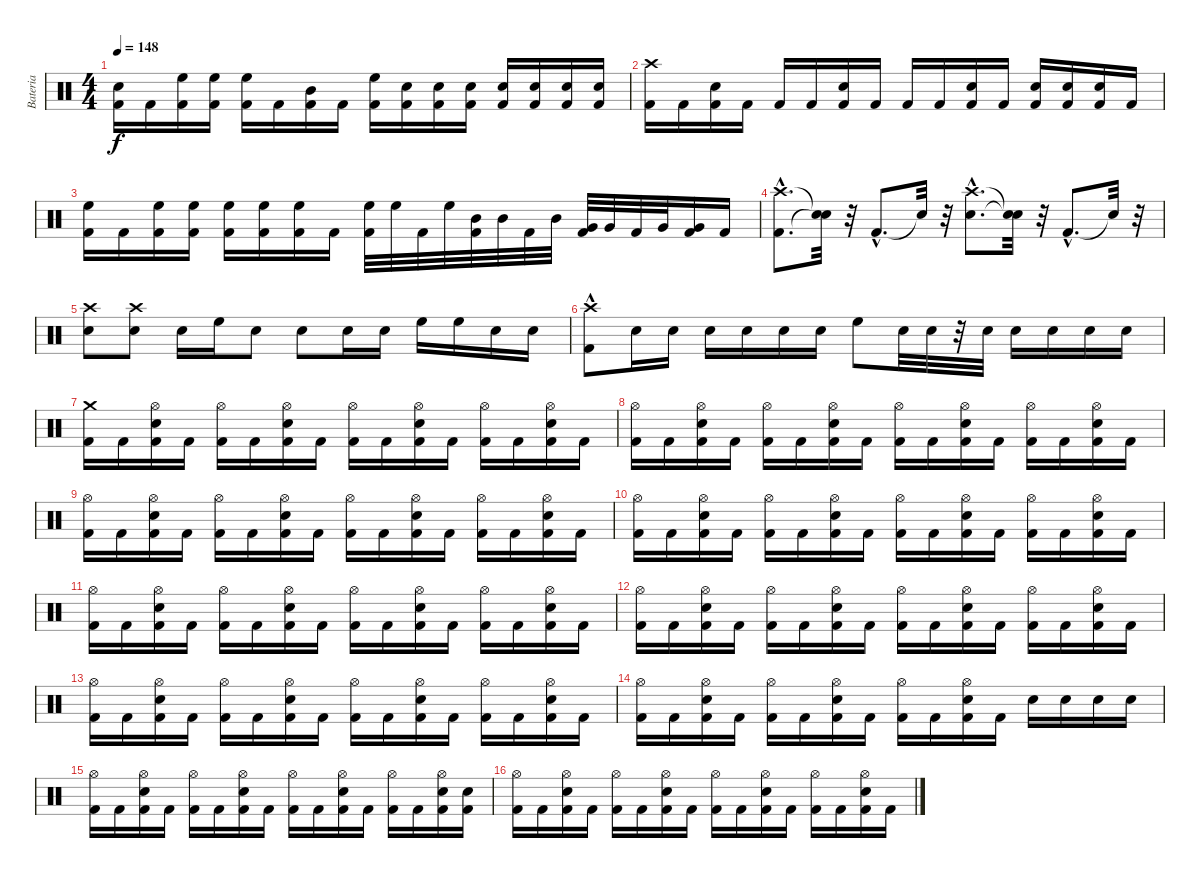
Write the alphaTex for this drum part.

\track ("Bateria" "Bateria") {instrument percussion}
\staff {score}
\articulation defaults
\ts (4 4)
\tempo 148
\clef neutral
\ks c
("Kick (hit) 2" "Snare (hit) 2").16{dy f} "Kick (hit) 2".16 ("Kick (hit) 2" "High Floor Tom (hit)").16 ("Kick (hit) 2" "High Floor Tom (hit)").16 ("Kick (hit) 2" "High Floor Tom (hit)").16 "Kick (hit) 2".16 ("Kick (hit) 2" "Mid Tom (hit)").16 "Kick (hit) 2".16 ("Kick (hit) 2" "High Floor Tom (hit)").16 ("Kick (hit) 2" "Snare (hit) 2").16 ("Kick (hit) 2" "Snare (hit) 2").16 ("Kick (hit) 2" "Snare (hit) 2").16 ("Kick (hit) 2" "Snare (hit) 2").16 ("Kick (hit) 2" "Snare (hit) 2").16 ("Kick (hit) 2" "Snare (hit) 2").16 ("Kick (hit) 2" "Snare (hit) 2").16 |
("Kick (hit) 2" "Crash high (hit)").16 "Kick (hit) 2".16 ("Kick (hit) 2" "Snare (hit) 2").16 "Kick (hit) 2".16 "Kick (hit) 2".16 "Kick (hit) 2".16 ("Kick (hit) 2" "Snare (hit) 2").16 "Kick (hit) 2".16 "Kick (hit) 2".16 "Kick (hit) 2".16 ("Kick (hit) 2" "Snare (hit) 2").16 "Kick (hit) 2".16 ("Kick (hit) 2" "Snare (hit) 2").16 ("Kick (hit) 2" "Snare (hit) 2").16 ("Kick (hit) 2" "Snare (hit) 2").16 "Kick (hit) 2".16 |
("Kick (hit) 2" "High Floor Tom (hit)").16 "Kick (hit) 2".16 ("Kick (hit) 2" "High Floor Tom (hit)").16 ("Kick (hit) 2" "High Floor Tom (hit)").16 ("Kick (hit) 2" "High Floor Tom (hit)").16 ("Kick (hit) 2" "High Floor Tom (hit)").16 ("Kick (hit) 2" "High Floor Tom (hit)").16 "Kick (hit) 2".16 ("Kick (hit) 2" "High Floor Tom (hit)").32 "High Floor Tom (hit)".32 "Kick (hit) 2".32 "High Floor Tom (hit)".32 ("Kick (hit) 2" "Mid Tom (hit)").32 "Mid Tom (hit)".32 "Kick (hit) 2".32 "Mid Tom (hit)".32 ("Kick (hit) 2" "Very Low Tom (hit)").32 "Very Low Tom (hit)".32 "Kick (hit) 2".32 "Very Low Tom (hit)".32 ("Kick (hit) 2" "Very Low Tom (hit)").16 "Kick (hit) 2".16 |
("Kick (hit) 2"{hac} "Crash high (hit)"{hac}).8{d} ("Snare (hit)"{t} "Snare (hit)"{t}).32 r.32 "Kick (hit) 2"{hac}.8{d} "Snare (hit)"{t}.32 r.32 ("Snare (hit) 2"{hac} "Crash high (hit)"{hac}).8{d} ("Snare (hit)"{t} "Snare (hit)"{t}).32 r.32 "Kick (hit) 2"{hac}.8{d} "Snare (hit)"{t}.32 r.32 |
("Snare (hit) 2" "Crash high (hit)").8 ("Snare (hit) 2" "Crash high (hit)").8 "Snare (hit) 2".16 "High Floor Tom (hit)".16 "Snare (hit) 2".8 "Snare (hit) 2".8 "Snare (hit) 2".16 "Snare (hit) 2".16 "High Floor Tom (hit)".16 "High Floor Tom (hit)".16 "Snare (hit) 2".16 "Snare (hit) 2".16 |
("Kick (hit) 2"{hac} "Crash high (hit)").8 "Snare (hit) 2".16 "Snare (hit) 2".16 "Snare (hit) 2".16 "Snare (hit) 2".16 "Snare (hit) 2".16 "Snare (hit) 2".16 "High Floor Tom (hit)".8 "Snare (hit) 2".32 "Snare (hit) 2".32 r.32 "Snare (hit) 2".32 "Snare (hit) 2".16 "Snare (hit) 2".16 "Snare (hit) 2".16 "Snare (hit) 2".16 |
("Kick (hit) 2" "Crash medium (hit)").16 "Kick (hit) 2".16 ("Kick (hit) 2" "Snare (hit) 2" "Hi-Hat (open)").16 "Kick (hit) 2".16 ("Kick (hit) 2" "Hi-Hat (open)").16 "Kick (hit) 2".16 ("Kick (hit) 2" "Snare (hit) 2" "Hi-Hat (open)").16 "Kick (hit) 2".16 ("Kick (hit) 2" "Hi-Hat (open)").16 "Kick (hit) 2".16 ("Kick (hit) 2" "Snare (hit) 2" "Hi-Hat (open)").16 "Kick (hit) 2".16 ("Kick (hit) 2" "Hi-Hat (open)").16 "Kick (hit) 2".16 ("Kick (hit) 2" "Snare (hit) 2" "Hi-Hat (open)").16 "Kick (hit) 2".16 |
("Kick (hit) 2" "Hi-Hat (open)").16 "Kick (hit) 2".16 ("Kick (hit) 2" "Snare (hit) 2" "Hi-Hat (open)").16 "Kick (hit) 2".16 ("Kick (hit) 2" "Hi-Hat (open)").16 "Kick (hit) 2".16 ("Kick (hit) 2" "Snare (hit) 2" "Hi-Hat (open)").16 "Kick (hit) 2".16 ("Kick (hit) 2" "Hi-Hat (open)").16 "Kick (hit) 2".16 ("Kick (hit) 2" "Snare (hit) 2" "Hi-Hat (open)").16 "Kick (hit) 2".16 ("Kick (hit) 2" "Hi-Hat (open)").16 "Kick (hit) 2".16 ("Kick (hit) 2" "Snare (hit) 2" "Hi-Hat (open)").16 "Kick (hit) 2".16 |
("Kick (hit) 2" "Hi-Hat (open)").16 "Kick (hit) 2".16 ("Kick (hit) 2" "Snare (hit) 2" "Hi-Hat (open)").16 "Kick (hit) 2".16 ("Kick (hit) 2" "Hi-Hat (open)").16 "Kick (hit) 2".16 ("Kick (hit) 2" "Snare (hit) 2" "Hi-Hat (open)").16 "Kick (hit) 2".16 ("Kick (hit) 2" "Hi-Hat (open)").16 "Kick (hit) 2".16 ("Kick (hit) 2" "Snare (hit) 2" "Hi-Hat (open)").16 "Kick (hit) 2".16 ("Kick (hit) 2" "Hi-Hat (open)").16 "Kick (hit) 2".16 ("Kick (hit) 2" "Snare (hit) 2" "Hi-Hat (open)").16 "Kick (hit) 2".16 |
("Kick (hit) 2" "Hi-Hat (open)").16 "Kick (hit) 2".16 ("Kick (hit) 2" "Snare (hit) 2" "Hi-Hat (open)").16 "Kick (hit) 2".16 ("Kick (hit) 2" "Hi-Hat (open)").16 "Kick (hit) 2".16 ("Kick (hit) 2" "Snare (hit) 2" "Hi-Hat (open)").16 "Kick (hit) 2".16 ("Kick (hit) 2" "Hi-Hat (open)").16 "Kick (hit) 2".16 ("Kick (hit) 2" "Snare (hit) 2" "Hi-Hat (open)").16 "Kick (hit) 2".16 ("Kick (hit) 2" "Hi-Hat (open)").16 "Kick (hit) 2".16 ("Kick (hit) 2" "Snare (hit) 2" "Hi-Hat (open)").16 "Kick (hit) 2".16 |
("Kick (hit) 2" "Hi-Hat (open)").16 "Kick (hit) 2".16 ("Kick (hit) 2" "Snare (hit) 2" "Hi-Hat (open)").16 "Kick (hit) 2".16 ("Kick (hit) 2" "Hi-Hat (open)").16 "Kick (hit) 2".16 ("Kick (hit) 2" "Snare (hit) 2" "Hi-Hat (open)").16 "Kick (hit) 2".16 ("Kick (hit) 2" "Hi-Hat (open)").16 "Kick (hit) 2".16 ("Kick (hit) 2" "Snare (hit) 2" "Hi-Hat (open)").16 "Kick (hit) 2".16 ("Kick (hit) 2" "Hi-Hat (open)").16 "Kick (hit) 2".16 ("Kick (hit) 2" "Snare (hit) 2" "Hi-Hat (open)").16 "Kick (hit) 2".16 |
("Kick (hit) 2" "Hi-Hat (open)").16 "Kick (hit) 2".16 ("Kick (hit) 2" "Snare (hit) 2" "Hi-Hat (open)").16 "Kick (hit) 2".16 ("Kick (hit) 2" "Hi-Hat (open)").16 "Kick (hit) 2".16 ("Kick (hit) 2" "Snare (hit) 2" "Hi-Hat (open)").16 "Kick (hit) 2".16 ("Kick (hit) 2" "Hi-Hat (open)").16 "Kick (hit) 2".16 ("Kick (hit) 2" "Snare (hit) 2" "Hi-Hat (open)").16 "Kick (hit) 2".16 ("Kick (hit) 2" "Hi-Hat (open)").16 "Kick (hit) 2".16 ("Kick (hit) 2" "Snare (hit) 2" "Hi-Hat (open)").16 "Kick (hit) 2".16 |
("Kick (hit) 2" "Hi-Hat (open)").16 "Kick (hit) 2".16 ("Kick (hit) 2" "Snare (hit) 2" "Hi-Hat (open)").16 "Kick (hit) 2".16 ("Kick (hit) 2" "Hi-Hat (open)").16 "Kick (hit) 2".16 ("Kick (hit) 2" "Snare (hit) 2" "Hi-Hat (open)").16 "Kick (hit) 2".16 ("Kick (hit) 2" "Hi-Hat (open)").16 "Kick (hit) 2".16 ("Kick (hit) 2" "Snare (hit) 2" "Hi-Hat (open)").16 "Kick (hit) 2".16 ("Kick (hit) 2" "Hi-Hat (open)").16 "Kick (hit) 2".16 ("Kick (hit) 2" "Snare (hit) 2" "Hi-Hat (open)").16 "Kick (hit) 2".16 |
("Kick (hit) 2" "Hi-Hat (open)").16 "Kick (hit) 2".16 ("Kick (hit) 2" "Snare (hit) 2" "Hi-Hat (open)").16 "Kick (hit) 2".16 ("Kick (hit) 2" "Hi-Hat (open)").16 "Kick (hit) 2".16 ("Kick (hit) 2" "Snare (hit) 2" "Hi-Hat (open)").16 "Kick (hit) 2".16 ("Kick (hit) 2" "Hi-Hat (open)").16 "Kick (hit) 2".16 ("Kick (hit) 2" "Snare (hit) 2" "Hi-Hat (open)").16 "Kick (hit) 2".16 "Snare (hit) 2".16 "Snare (hit) 2".16 "Snare (hit) 2".16 "Snare (hit) 2".16 |
("Kick (hit) 2" "Hi-Hat (open)").16 "Kick (hit) 2".16 ("Kick (hit) 2" "Snare (hit) 2" "Hi-Hat (open)").16 "Kick (hit) 2".16 ("Kick (hit) 2" "Hi-Hat (open)").16 "Kick (hit) 2".16 ("Kick (hit) 2" "Snare (hit) 2" "Hi-Hat (open)").16 "Kick (hit) 2".16 ("Kick (hit) 2" "Hi-Hat (open)").16 "Kick (hit) 2".16 ("Kick (hit) 2" "Snare (hit) 2" "Hi-Hat (open)").16 "Kick (hit) 2".16 ("Kick (hit) 2" "Hi-Hat (open)").16 "Kick (hit) 2".16 ("Kick (hit) 2" "Hi-Hat (open)" "Snare (hit) 2").16 ("Kick (hit) 2" "Snare (hit) 2").16 |
("Kick (hit) 2" "Hi-Hat (open)").16 "Kick (hit) 2".16 ("Kick (hit) 2" "Snare (hit) 2" "Hi-Hat (open)").16 "Kick (hit) 2".16 ("Kick (hit) 2" "Hi-Hat (open)").16 "Kick (hit) 2".16 ("Kick (hit) 2" "Snare (hit) 2" "Hi-Hat (open)").16 "Kick (hit) 2".16 ("Kick (hit) 2" "Hi-Hat (open)").16 "Kick (hit) 2".16 ("Kick (hit) 2" "Snare (hit) 2" "Hi-Hat (open)").16 "Kick (hit) 2".16 ("Kick (hit) 2" "Hi-Hat (open)").16 "Kick (hit) 2".16 ("Kick (hit) 2" "Snare (hit) 2" "Hi-Hat (open)").16 "Kick (hit) 2".16
